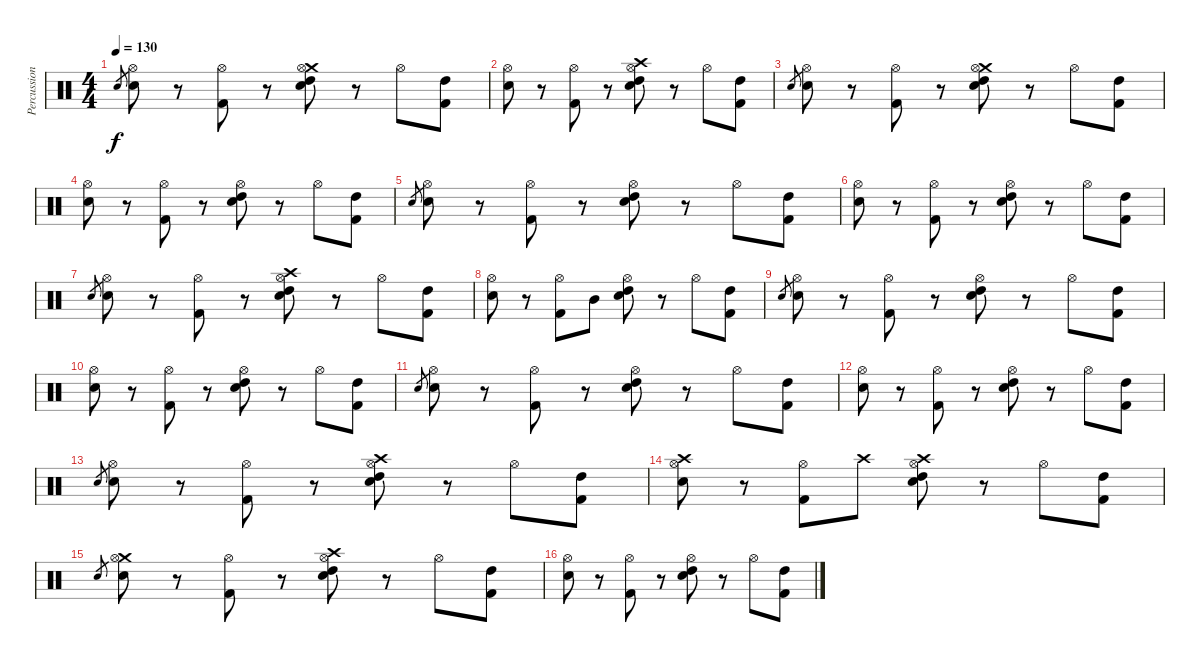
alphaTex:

\track ("Percussion" "Percussion") {instrument percussion}
\staff {score}
\articulation defaults
\ts (4 4)
\tempo 130
\clef neutral
\ks c "Snare (hit) 2".8{gr dy f}
("Hi-Hat (open)" "Snare (hit) 2").8 r.8 ("Hi-Hat (open)" "Kick (hit) 2").8 r.8 ("Crash medium (hit)" "Hi-Hat (open)" "High Tom (hit)" "Snare (hit) 2").8 r.8 "Hi-Hat (open)".8 ("High Tom (hit)" "Kick (hit) 2").8 |
("Hi-Hat (open)" "Snare (hit) 2").8 r.8 ("Hi-Hat (open)" "Kick (hit) 2").8 r.8 ("Crash high (hit)" "Hi-Hat (open)" "High Tom (hit)" "Snare (hit) 2").8 r.8 "Hi-Hat (open)".8 ("High Tom (hit)" "Kick (hit) 2").8 |
"Snare (hit) 2".8{gr} ("Hi-Hat (open)" "Snare (hit) 2").8 r.8 ("Hi-Hat (open)" "Kick (hit) 2").8 r.8 ("Crash medium (hit)" "Hi-Hat (open)" "High Tom (hit)" "Snare (hit) 2").8 r.8 "Hi-Hat (open)".8 ("High Tom (hit)" "Kick (hit) 2").8 |
("Hi-Hat (open)" "Snare (hit) 2").8 r.8 ("Hi-Hat (open)" "Kick (hit) 2").8 r.8 ("Hi-Hat (open)" "High Tom (hit)" "Snare (hit) 2").8 r.8 "Hi-Hat (open)".8 ("High Tom (hit)" "Kick (hit) 2").8 |
"Snare (hit) 2".8{gr} ("Hi-Hat (open)" "Snare (hit) 2").8 r.8 ("Hi-Hat (open)" "Kick (hit) 2").8 r.8 ("Hi-Hat (open)" "High Tom (hit)" "Snare (hit) 2").8 r.8 "Hi-Hat (open)".8 ("High Tom (hit)" "Kick (hit) 2").8 |
("Hi-Hat (open)" "Snare (hit) 2").8 r.8 ("Hi-Hat (open)" "Kick (hit) 2").8 r.8 ("Hi-Hat (open)" "High Tom (hit)" "Snare (hit) 2").8 r.8 "Hi-Hat (open)".8 ("High Tom (hit)" "Kick (hit) 2").8 |
"Snare (hit) 2".8{gr} ("Hi-Hat (open)" "Snare (hit) 2").8 r.8 ("Hi-Hat (open)" "Kick (hit) 2").8 r.8 ("Crash high (hit)" "Hi-Hat (open)" "High Tom (hit)" "Snare (hit) 2").8 r.8 "Hi-Hat (open)".8 ("High Tom (hit)" "Kick (hit) 2").8 |
("Hi-Hat (open)" "Snare (hit) 2").8 r.8 ("Hi-Hat (open)" "Kick (hit) 2").8 "Mid Tom (hit)".8 ("Hi-Hat (open)" "High Tom (hit)" "Snare (hit) 2").8 r.8 "Hi-Hat (open)".8 ("High Tom (hit)" "Kick (hit) 2").8 |
"Snare (hit) 2".8{gr} ("Hi-Hat (open)" "Snare (hit) 2").8 r.8 ("Hi-Hat (open)" "Kick (hit) 2").8 r.8 ("Hi-Hat (open)" "High Tom (hit)" "Snare (hit) 2").8 r.8 "Hi-Hat (open)".8 ("High Tom (hit)" "Kick (hit) 2").8 |
("Hi-Hat (open)" "Snare (hit) 2").8 r.8 ("Hi-Hat (open)" "Kick (hit) 2").8 r.8 ("Hi-Hat (open)" "High Tom (hit)" "Snare (hit) 2").8 r.8 "Hi-Hat (open)".8 ("High Tom (hit)" "Kick (hit) 2").8 |
"Snare (hit) 2".8{gr} ("Hi-Hat (open)" "Snare (hit) 2").8 r.8 ("Hi-Hat (open)" "Kick (hit) 2").8 r.8 ("Hi-Hat (open)" "High Tom (hit)" "Snare (hit) 2").8 r.8 "Hi-Hat (open)".8 ("High Tom (hit)" "Kick (hit) 2").8 |
("Hi-Hat (open)" "Snare (hit) 2").8 r.8 ("Hi-Hat (open)" "Kick (hit) 2").8 r.8 ("Hi-Hat (open)" "High Tom (hit)" "Snare (hit) 2").8 r.8 "Hi-Hat (open)".8 ("High Tom (hit)" "Kick (hit) 2").8 |
"Snare (hit) 2".8{gr} ("Hi-Hat (open)" "Snare (hit) 2").8 r.8 ("Hi-Hat (open)" "Kick (hit) 2").8 r.8 ("Crash high (hit)" "Hi-Hat (open)" "High Tom (hit)" "Snare (hit) 2").8 r.8 "Hi-Hat (open)".8 ("High Tom (hit)" "Kick (hit) 2").8 |
("Crash high (hit)" "Hi-Hat (open)" "Snare (hit) 2").8 r.8 ("Hi-Hat (open)" "Kick (hit) 2").8 "Crash high (hit)".8 ("Crash high (hit)" "Hi-Hat (open)" "High Tom (hit)" "Snare (hit) 2").8 r.8 "Hi-Hat (open)".8 ("High Tom (hit)" "Kick (hit) 2").8 |
"Snare (hit) 2".8{gr} ("Crash medium (hit)" "Hi-Hat (open)" "Snare (hit) 2").8 r.8 ("Hi-Hat (open)" "Kick (hit) 2").8 r.8 ("Crash high (hit)" "Hi-Hat (open)" "High Tom (hit)" "Snare (hit) 2").8 r.8 "Hi-Hat (open)".8 ("High Tom (hit)" "Kick (hit) 2").8 |
("Hi-Hat (open)" "Snare (hit) 2").8 r.8 ("Hi-Hat (open)" "Kick (hit) 2").8 r.8 ("Hi-Hat (open)" "High Tom (hit)" "Snare (hit) 2").8 r.8 "Hi-Hat (open)".8 ("High Tom (hit)" "Kick (hit) 2").8
